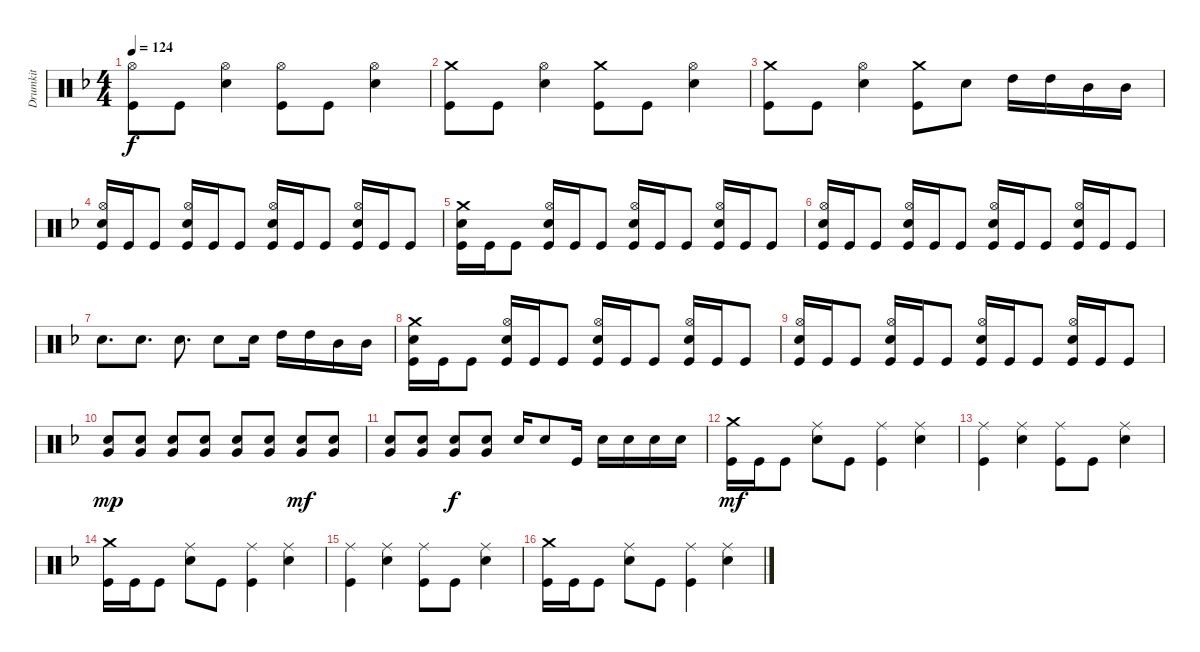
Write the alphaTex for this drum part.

\track ("Drumkit" "Drumkit") {instrument percussion}
\staff {score}
\articulation defaults
\ts (4 4)
\tempo 124
\clef neutral
\ks dminor
("Kick (hit)" "Hi-Hat (open)").8{dy f} "Kick (hit)".8 ("Snare (hit) 2" "Hi-Hat (open)").4 ("Kick (hit)" "Hi-Hat (open)").8 "Kick (hit)".8 ("Hi-Hat (open)" "Snare (hit) 2").4 |
("Kick (hit)" "Crash medium (hit)").8 "Kick (hit)".8 ("Snare (hit) 2" "Hi-Hat (open)").4 ("Kick (hit)" "Crash medium (hit)").8 "Kick (hit)".8 ("Hi-Hat (open)" "Snare (hit) 2").4 |
("Kick (hit)" "Crash medium (hit)").8 "Kick (hit)".8 ("Snare (hit) 2" "Hi-Hat (open)").4 ("Kick (hit)" "Crash medium (hit)").8 "Snare (hit) 2".8 "High Tom (hit)".16 "High Tom (hit)".16 "Mid Tom (hit)".16 "Mid Tom (hit)".16 |
("Kick (hit)" "Snare (hit) 2" "Hi-Hat (open)").16 "Kick (hit)".16 "Kick (hit)".8 ("Kick (hit)" "Snare (hit) 2" "Hi-Hat (open)").16 "Kick (hit)".16 "Kick (hit)".8 ("Kick (hit)" "Snare (hit) 2" "Hi-Hat (open)").16 "Kick (hit)".16 "Kick (hit)".8 ("Kick (hit)" "Snare (hit) 2" "Hi-Hat (open)").16 "Kick (hit)".16 "Kick (hit)".8 |
("Kick (hit)" "Snare (hit) 2" "Crash medium (hit)").16 "Kick (hit)".16 "Kick (hit)".8 ("Kick (hit)" "Snare (hit) 2" "Hi-Hat (open)").16 "Kick (hit)".16 "Kick (hit)".8 ("Kick (hit)" "Snare (hit) 2" "Hi-Hat (open)").16 "Kick (hit)".16 "Kick (hit)".8 ("Kick (hit)" "Snare (hit) 2" "Hi-Hat (open)").16 "Kick (hit)".16 "Kick (hit)".8 |
("Kick (hit)" "Snare (hit) 2" "Hi-Hat (open)").16 "Kick (hit)".16 "Kick (hit)".8 ("Kick (hit)" "Snare (hit) 2" "Hi-Hat (open)").16 "Kick (hit)".16 "Kick (hit)".8 ("Kick (hit)" "Snare (hit) 2" "Hi-Hat (open)").16 "Kick (hit)".16 "Kick (hit)".8 ("Kick (hit)" "Snare (hit) 2" "Hi-Hat (open)").16 "Kick (hit)".16 "Kick (hit)".8 |
"Snare (hit) 2".8{d} "Snare (hit) 2".8{d} "Snare (hit) 2".8{d} "Snare (hit) 2".8 "Snare (hit) 2".16 "High Tom (hit)".16 "High Tom (hit)".16 "Mid Tom (hit)".16 "Mid Tom (hit)".16 |
("Kick (hit)" "Snare (hit) 2" "Crash medium (hit)").16 "Kick (hit)".16 "Kick (hit)".8 ("Kick (hit)" "Snare (hit) 2" "Hi-Hat (open)").16 "Kick (hit)".16 "Kick (hit)".8 ("Kick (hit)" "Snare (hit) 2" "Hi-Hat (open)").16 "Kick (hit)".16 "Kick (hit)".8 ("Kick (hit)" "Snare (hit) 2" "Hi-Hat (open)").16 "Kick (hit)".16 "Kick (hit)".8 |
("Kick (hit)" "Snare (hit) 2" "Hi-Hat (open)").16 "Kick (hit)".16 "Kick (hit)".8 ("Kick (hit)" "Snare (hit) 2" "Hi-Hat (open)").16 "Kick (hit)".16 "Kick (hit)".8 ("Kick (hit)" "Snare (hit) 2" "Hi-Hat (open)").16 "Kick (hit)".16 "Kick (hit)".8 ("Kick (hit)" "Snare (hit) 2" "Hi-Hat (open)").16 "Kick (hit)".16 "Kick (hit)".8 |
("Snare (hit) 2" "Very Low Tom (hit)").8{dy mp} ("Snare (hit) 2" "Very Low Tom (hit)").8 ("Snare (hit) 2" "Very Low Tom (hit)").8 ("Snare (hit) 2" "Very Low Tom (hit)").8 ("Snare (hit) 2" "Very Low Tom (hit)").8 ("Snare (hit) 2" "Very Low Tom (hit)").8 ("Snare (hit) 2" "Very Low Tom (hit)").8{dy mf} ("Snare (hit) 2" "Very Low Tom (hit)").8 |
("Snare (hit) 2" "Very Low Tom (hit)").8 ("Snare (hit) 2" "Very Low Tom (hit)").8 ("Snare (hit) 2" "Very Low Tom (hit)").8{dy f} ("Snare (hit) 2" "Very Low Tom (hit)").8 "Snare (hit) 2".16 "Snare (hit) 2".8 "Kick (hit)".16 "Snare (hit) 2".16 "Snare (hit) 2".16 "Snare (hit) 2".16 "Snare (hit) 2".16 |
("Kick (hit)" "Crash medium (hit)").16{dy mf} "Kick (hit)".16 "Kick (hit)".8 ("Snare (hit) 2" "Ride (middle)").8 "Kick (hit)".8 ("Kick (hit)" "Ride (middle)").4 ("Snare (hit) 2" "Ride (middle)").4 |
("Kick (hit)" "Ride (middle)").4 ("Snare (hit) 2" "Ride (middle)").4 ("Kick (hit)" "Ride (middle)").8 "Kick (hit)".8 ("Snare (hit) 2" "Ride (middle)").4 |
("Kick (hit)" "Crash medium (hit)").16 "Kick (hit)".16 "Kick (hit)".8 ("Snare (hit) 2" "Ride (middle)").8 "Kick (hit)".8 ("Kick (hit)" "Ride (middle)").4 ("Snare (hit) 2" "Ride (middle)").4 |
("Kick (hit)" "Ride (middle)").4 ("Snare (hit) 2" "Ride (middle)").4 ("Kick (hit)" "Ride (middle)").8 "Kick (hit)".8 ("Snare (hit) 2" "Ride (middle)").4 |
("Kick (hit)" "Crash medium (hit)").16 "Kick (hit)".16 "Kick (hit)".8 ("Snare (hit) 2" "Ride (middle)").8 "Kick (hit)".8 ("Kick (hit)" "Ride (middle)").4 ("Snare (hit) 2" "Ride (middle)").4
